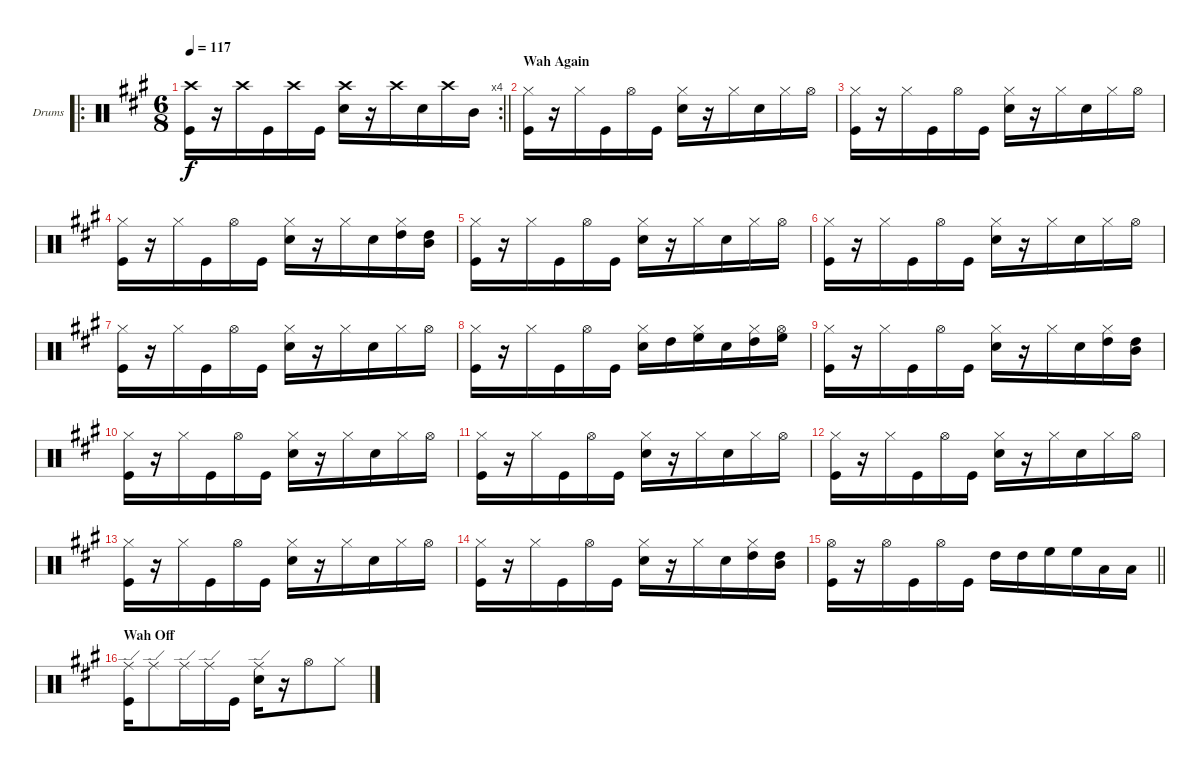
\bracketExtendMode groupsimilarinstruments
\firstSystemTrackNameOrientation horizontal
\otherSystemsTrackNameOrientation horizontal
\track ("Drumkit" "Drums") {instrument percussion}
\staff {score}
\articulation defaults
\ro
\rc 4
\ts (6 8)
\tempo 117
\clef neutral
\barLineRight lightlight
\ks a
("Crash high (hit)" "Kick (hit)").16{dy f} r.16 "Crash high (hit)".16 "Kick (hit)".16 "Crash high (hit)".16 "Kick (hit)".16 ("Crash high (hit)" "Snare (hit) 2").16 r.16 "Crash high (hit)".16 "Snare (hit) 2".16 "Crash high (hit)".16 "Mid Tom (hit)".16 |
\section ("" "Wah Again")
("Hi-Hat (closed)" "Kick (hit)").16 r.16 "Hi-Hat (closed)".16 "Kick (hit)".16 "Hi-Hat (open)".16 "Kick (hit)".16 ("Hi-Hat (closed)" "Snare (hit) 2").16 r.16 "Hi-Hat (closed)".16 "Snare (hit) 2".16 "Hi-Hat (closed)".16 "Hi-Hat (open)".16 |
("Hi-Hat (closed)" "Kick (hit)").16 r.16 "Hi-Hat (closed)".16 "Kick (hit)".16 "Hi-Hat (open)".16 "Kick (hit)".16 ("Hi-Hat (closed)" "Snare (hit) 2").16 r.16 "Hi-Hat (closed)".16 "Snare (hit) 2".16 "Hi-Hat (closed)".16 "Hi-Hat (open)".16 |
("Hi-Hat (closed)" "Kick (hit)").16 r.16 "Hi-Hat (closed)".16 "Kick (hit)".16 "Hi-Hat (open)".16 "Kick (hit)".16 ("Hi-Hat (closed)" "Snare (hit) 2").16 r.16 "Hi-Hat (closed)".16 "Snare (hit) 2".16 ("High Tom (hit)" "Hi-Hat (closed)").16 ("High Tom (hit)" "Mid Tom (hit)").16 |
("Hi-Hat (closed)" "Kick (hit)").16 r.16 "Hi-Hat (closed)".16 "Kick (hit)".16 "Hi-Hat (open)".16 "Kick (hit)".16 ("Hi-Hat (closed)" "Snare (hit) 2").16 r.16 "Hi-Hat (closed)".16 "Snare (hit) 2".16 "Hi-Hat (closed)".16 "Hi-Hat (open)".16 |
("Hi-Hat (closed)" "Kick (hit)").16 r.16 "Hi-Hat (closed)".16 "Kick (hit)".16 "Hi-Hat (open)".16 "Kick (hit)".16 ("Hi-Hat (closed)" "Snare (hit) 2").16 r.16 "Hi-Hat (closed)".16 "Snare (hit) 2".16 "Hi-Hat (closed)".16 "Hi-Hat (open)".16 |
("Hi-Hat (closed)" "Kick (hit)").16 r.16 "Hi-Hat (closed)".16 "Kick (hit)".16 "Hi-Hat (open)".16 "Kick (hit)".16 ("Hi-Hat (closed)" "Snare (hit) 2").16 r.16 "Hi-Hat (closed)".16 "Snare (hit) 2".16 "Hi-Hat (closed)".16 "Hi-Hat (open)".16 |
("Hi-Hat (closed)" "Kick (hit)").16 r.16 "Hi-Hat (closed)".16 "Kick (hit)".16 "Hi-Hat (open)".16 "Kick (hit)".16 ("Hi-Hat (closed)" "Snare (hit) 2").16 "High Tom (hit)".16 ("High Floor Tom (hit)" "Hi-Hat (closed)").16 "Snare (hit) 2".16 ("High Tom (hit)" "Hi-Hat (closed)").16 ("High Floor Tom (hit)" "Hi-Hat (open)").16 |
("Hi-Hat (closed)" "Kick (hit)").16 r.16 "Hi-Hat (closed)".16 "Kick (hit)".16 "Hi-Hat (open)".16 "Kick (hit)".16 ("Hi-Hat (closed)" "Snare (hit) 2").16 r.16 "Hi-Hat (closed)".16 "Snare (hit) 2".16 ("High Tom (hit)" "Hi-Hat (closed)").16 ("High Tom (hit)" "Mid Tom (hit)").16 |
("Hi-Hat (closed)" "Kick (hit)").16 r.16 "Hi-Hat (closed)".16 "Kick (hit)".16 "Hi-Hat (open)".16 "Kick (hit)".16 ("Hi-Hat (closed)" "Snare (hit) 2").16 r.16 "Hi-Hat (closed)".16 "Snare (hit) 2".16 "Hi-Hat (closed)".16 "Hi-Hat (open)".16 |
("Hi-Hat (closed)" "Kick (hit)").16 r.16 "Hi-Hat (closed)".16 "Kick (hit)".16 "Hi-Hat (open)".16 "Kick (hit)".16 ("Hi-Hat (closed)" "Snare (hit) 2").16 r.16 "Hi-Hat (closed)".16 "Snare (hit) 2".16 "Hi-Hat (closed)".16 "Hi-Hat (open)".16 |
("Hi-Hat (closed)" "Kick (hit)").16 r.16 "Hi-Hat (closed)".16 "Kick (hit)".16 "Hi-Hat (open)".16 "Kick (hit)".16 ("Hi-Hat (closed)" "Snare (hit) 2").16 r.16 "Hi-Hat (closed)".16 "Snare (hit) 2".16 "Hi-Hat (closed)".16 "Hi-Hat (open)".16 |
("Hi-Hat (closed)" "Kick (hit)").16 r.16 "Hi-Hat (closed)".16 "Kick (hit)".16 "Hi-Hat (open)".16 "Kick (hit)".16 ("Hi-Hat (closed)" "Snare (hit) 2").16 r.16 "Hi-Hat (closed)".16 "Snare (hit) 2".16 "Hi-Hat (closed)".16 "Hi-Hat (open)".16 |
("Hi-Hat (closed)" "Kick (hit)").16 r.16 "Hi-Hat (closed)".16 "Kick (hit)".16 "Hi-Hat (open)".16 "Kick (hit)".16 ("Hi-Hat (closed)" "Snare (hit) 2").16 r.16 "Hi-Hat (closed)".16 "Snare (hit) 2".16 ("High Tom (hit)" "Hi-Hat (closed)").16 ("High Tom (hit)" "Mid Tom (hit)").16 |
\barLineRight lightlight
("Hi-Hat (open)" "Kick (hit)").16 r.16 "Hi-Hat (open)".16 "Kick (hit)".16 "Hi-Hat (open)".16 "Kick (hit)".16 "High Tom (hit)".16 "High Tom (hit)".16 "High Floor Tom (hit)".16 "High Floor Tom (hit)".16 "Low Tom (hit)".16 "Low Tom (hit)".16 |
\section ("" "Wah Off")
("Ride (edge)" "Kick (hit)").16 "Ride (edge)".8 "Ride (edge)".16 "Ride (edge)".16 "Kick (hit)".16 ("Ride (edge)" "Snare (hit) 2").16 r.16 "Hi-Hat (open)".8 "Hi-Hat (closed)".8
